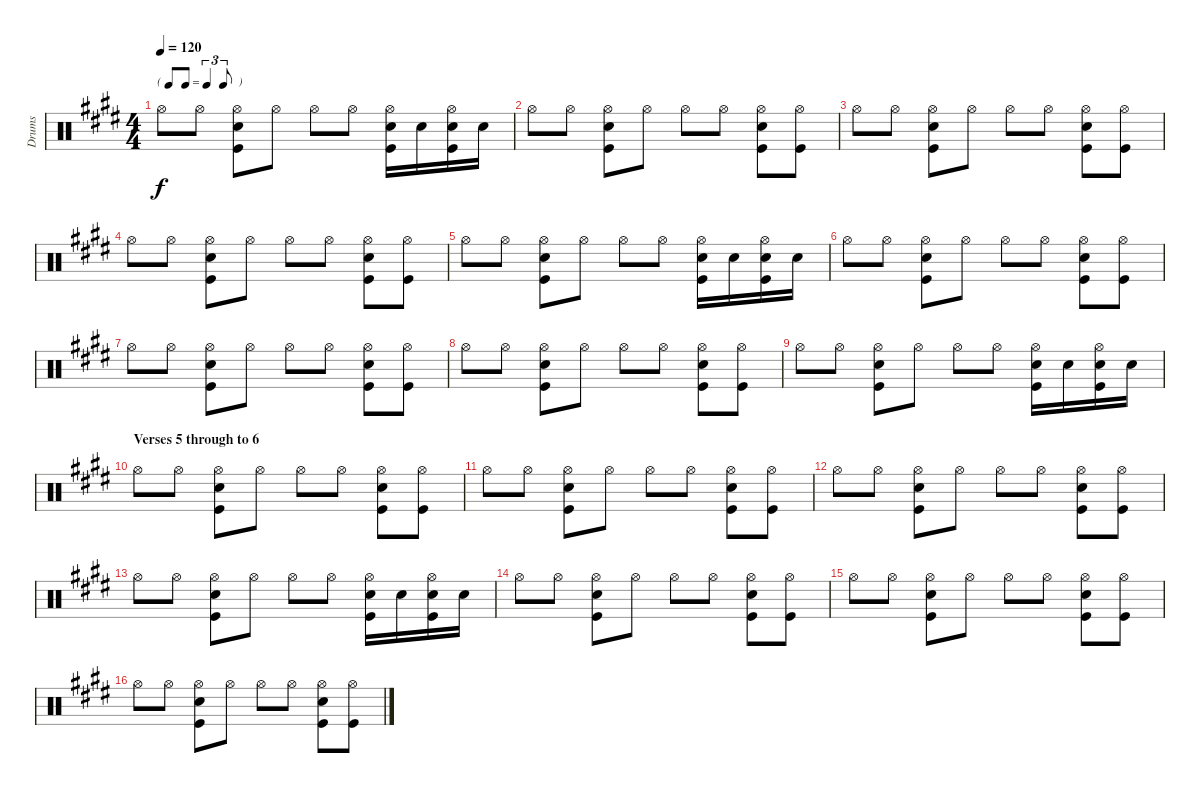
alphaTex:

\track ("Drums" "Drums") {instrument percussion}
\staff {score}
\articulation defaults
\ts (4 4)
\tf triplet8th
\tempo 120
\clef neutral
\ks e "Hi-Hat (open)".8{dy f} "Hi-Hat (open)".8
("Kick (hit)" "Electric Snare (hit)" "Hi-Hat (open)").8 "Hi-Hat (open)".8 "Hi-Hat (open)".8 "Hi-Hat (open)".8 ("Kick (hit)" "Electric Snare (hit)" "Hi-Hat (open)").16 "Electric Snare (hit)".16 ("Electric Snare (hit)" "Kick (hit)" "Hi-Hat (open)").16 "Electric Snare (hit)".16 |
"Hi-Hat (open)".8 "Hi-Hat (open)".8 ("Kick (hit)" "Electric Snare (hit)" "Hi-Hat (open)").8 "Hi-Hat (open)".8 "Hi-Hat (open)".8 "Hi-Hat (open)".8 ("Kick (hit)" "Electric Snare (hit)" "Hi-Hat (open)").8 ("Kick (hit)" "Hi-Hat (open)").8 |
"Hi-Hat (open)".8 "Hi-Hat (open)".8 ("Kick (hit)" "Electric Snare (hit)" "Hi-Hat (open)").8 "Hi-Hat (open)".8 "Hi-Hat (open)".8 "Hi-Hat (open)".8 ("Kick (hit)" "Electric Snare (hit)" "Hi-Hat (open)").8 ("Kick (hit)" "Hi-Hat (open)").8 |
"Hi-Hat (open)".8 "Hi-Hat (open)".8 ("Kick (hit)" "Electric Snare (hit)" "Hi-Hat (open)").8 "Hi-Hat (open)".8 "Hi-Hat (open)".8 "Hi-Hat (open)".8 ("Kick (hit)" "Electric Snare (hit)" "Hi-Hat (open)").8 ("Kick (hit)" "Hi-Hat (open)").8 |
"Hi-Hat (open)".8 "Hi-Hat (open)".8 ("Kick (hit)" "Electric Snare (hit)" "Hi-Hat (open)").8 "Hi-Hat (open)".8 "Hi-Hat (open)".8 "Hi-Hat (open)".8 ("Kick (hit)" "Electric Snare (hit)" "Hi-Hat (open)").16 "Electric Snare (hit)".16 ("Electric Snare (hit)" "Kick (hit)" "Hi-Hat (open)").16 "Electric Snare (hit)".16 |
"Hi-Hat (open)".8 "Hi-Hat (open)".8 ("Kick (hit)" "Electric Snare (hit)" "Hi-Hat (open)").8 "Hi-Hat (open)".8 "Hi-Hat (open)".8 "Hi-Hat (open)".8 ("Kick (hit)" "Electric Snare (hit)" "Hi-Hat (open)").8 ("Kick (hit)" "Hi-Hat (open)").8 |
"Hi-Hat (open)".8 "Hi-Hat (open)".8 ("Kick (hit)" "Electric Snare (hit)" "Hi-Hat (open)").8 "Hi-Hat (open)".8 "Hi-Hat (open)".8 "Hi-Hat (open)".8 ("Kick (hit)" "Electric Snare (hit)" "Hi-Hat (open)").8 ("Kick (hit)" "Hi-Hat (open)").8 |
"Hi-Hat (open)".8 "Hi-Hat (open)".8 ("Kick (hit)" "Electric Snare (hit)" "Hi-Hat (open)").8 "Hi-Hat (open)".8 "Hi-Hat (open)".8 "Hi-Hat (open)".8 ("Kick (hit)" "Electric Snare (hit)" "Hi-Hat (open)").8 ("Kick (hit)" "Hi-Hat (open)").8 |
"Hi-Hat (open)".8 "Hi-Hat (open)".8 ("Kick (hit)" "Electric Snare (hit)" "Hi-Hat (open)").8 "Hi-Hat (open)".8 "Hi-Hat (open)".8 "Hi-Hat (open)".8 ("Kick (hit)" "Electric Snare (hit)" "Hi-Hat (open)").16 "Electric Snare (hit)".16 ("Electric Snare (hit)" "Kick (hit)" "Hi-Hat (open)").16 "Electric Snare (hit)".16 |
\section ("" "Verses 5 through to 6")
"Hi-Hat (open)".8 "Hi-Hat (open)".8 ("Kick (hit)" "Electric Snare (hit)" "Hi-Hat (open)").8 "Hi-Hat (open)".8 "Hi-Hat (open)".8 "Hi-Hat (open)".8 ("Kick (hit)" "Electric Snare (hit)" "Hi-Hat (open)").8 ("Kick (hit)" "Hi-Hat (open)").8 |
"Hi-Hat (open)".8 "Hi-Hat (open)".8 ("Kick (hit)" "Electric Snare (hit)" "Hi-Hat (open)").8 "Hi-Hat (open)".8 "Hi-Hat (open)".8 "Hi-Hat (open)".8 ("Kick (hit)" "Electric Snare (hit)" "Hi-Hat (open)").8 ("Kick (hit)" "Hi-Hat (open)").8 |
"Hi-Hat (open)".8 "Hi-Hat (open)".8 ("Kick (hit)" "Electric Snare (hit)" "Hi-Hat (open)").8 "Hi-Hat (open)".8 "Hi-Hat (open)".8 "Hi-Hat (open)".8 ("Kick (hit)" "Electric Snare (hit)" "Hi-Hat (open)").8 ("Kick (hit)" "Hi-Hat (open)").8 |
"Hi-Hat (open)".8 "Hi-Hat (open)".8 ("Kick (hit)" "Electric Snare (hit)" "Hi-Hat (open)").8 "Hi-Hat (open)".8 "Hi-Hat (open)".8 "Hi-Hat (open)".8 ("Kick (hit)" "Electric Snare (hit)" "Hi-Hat (open)").16 "Electric Snare (hit)".16 ("Electric Snare (hit)" "Kick (hit)" "Hi-Hat (open)").16 "Electric Snare (hit)".16 |
"Hi-Hat (open)".8 "Hi-Hat (open)".8 ("Kick (hit)" "Electric Snare (hit)" "Hi-Hat (open)").8 "Hi-Hat (open)".8 "Hi-Hat (open)".8 "Hi-Hat (open)".8 ("Kick (hit)" "Electric Snare (hit)" "Hi-Hat (open)").8 ("Kick (hit)" "Hi-Hat (open)").8 |
"Hi-Hat (open)".8 "Hi-Hat (open)".8 ("Kick (hit)" "Electric Snare (hit)" "Hi-Hat (open)").8 "Hi-Hat (open)".8 "Hi-Hat (open)".8 "Hi-Hat (open)".8 ("Kick (hit)" "Electric Snare (hit)" "Hi-Hat (open)").8 ("Kick (hit)" "Hi-Hat (open)").8 |
"Hi-Hat (open)".8 "Hi-Hat (open)".8 ("Kick (hit)" "Electric Snare (hit)" "Hi-Hat (open)").8 "Hi-Hat (open)".8 "Hi-Hat (open)".8 "Hi-Hat (open)".8 ("Kick (hit)" "Electric Snare (hit)" "Hi-Hat (open)").8 ("Kick (hit)" "Hi-Hat (open)").8
